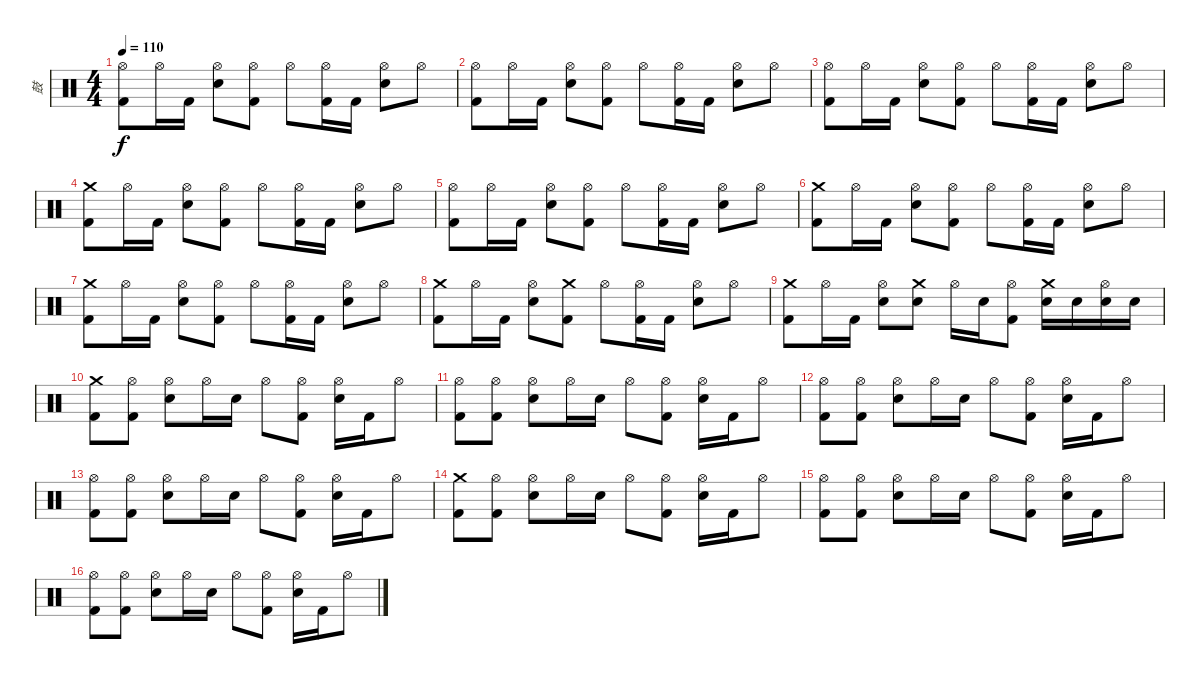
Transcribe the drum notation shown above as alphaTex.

\track ("鼓" "鼓") {instrument percussion}
\staff {score}
\articulation defaults
\ts (4 4)
\tempo 110
\clef neutral
\ks c
("Hi-Hat (open)" "Kick (hit) 2").8{dy f} "Hi-Hat (open)".16 "Kick (hit) 2".16 ("Hi-Hat (open)" "Electric Snare (hit)").8 ("Hi-Hat (open)" "Kick (hit) 2").8 "Hi-Hat (open)".8 ("Hi-Hat (open)" "Kick (hit) 2").16 "Kick (hit) 2".16 ("Hi-Hat (open)" "Electric Snare (hit)").8 "Hi-Hat (open)".8 |
("Hi-Hat (open)" "Kick (hit) 2").8 "Hi-Hat (open)".16 "Kick (hit) 2".16 ("Hi-Hat (open)" "Electric Snare (hit)").8 ("Hi-Hat (open)" "Kick (hit) 2").8 "Hi-Hat (open)".8 ("Hi-Hat (open)" "Kick (hit) 2").16 "Kick (hit) 2".16 ("Hi-Hat (open)" "Electric Snare (hit)").8 "Hi-Hat (open)".8 |
("Hi-Hat (open)" "Kick (hit) 2").8 "Hi-Hat (open)".16 "Kick (hit) 2".16 ("Hi-Hat (open)" "Electric Snare (hit)").8 ("Hi-Hat (open)" "Kick (hit) 2").8 "Hi-Hat (open)".8 ("Hi-Hat (open)" "Kick (hit) 2").16 "Kick (hit) 2".16 ("Hi-Hat (open)" "Electric Snare (hit)").8 "Hi-Hat (open)".8 |
("Crash medium (hit)" "Kick (hit) 2").8 "Hi-Hat (open)".16 "Kick (hit) 2".16 ("Hi-Hat (open)" "Electric Snare (hit)").8 ("Hi-Hat (open)" "Kick (hit) 2").8 "Hi-Hat (open)".8 ("Hi-Hat (open)" "Kick (hit) 2").16 "Kick (hit) 2".16 ("Hi-Hat (open)" "Electric Snare (hit)").8 "Hi-Hat (open)".8 |
("Hi-Hat (open)" "Kick (hit) 2").8 "Hi-Hat (open)".16 "Kick (hit) 2".16 ("Hi-Hat (open)" "Electric Snare (hit)").8 ("Hi-Hat (open)" "Kick (hit) 2").8 "Hi-Hat (open)".8 ("Hi-Hat (open)" "Kick (hit) 2").16 "Kick (hit) 2".16 ("Hi-Hat (open)" "Electric Snare (hit)").8 "Hi-Hat (open)".8 |
("Crash medium (hit)" "Kick (hit) 2").8 "Hi-Hat (open)".16 "Kick (hit) 2".16 ("Hi-Hat (open)" "Electric Snare (hit)").8 ("Hi-Hat (open)" "Kick (hit) 2").8 "Hi-Hat (open)".8 ("Hi-Hat (open)" "Kick (hit) 2").16 "Kick (hit) 2".16 ("Hi-Hat (open)" "Electric Snare (hit)").8 "Hi-Hat (open)".8 |
("Crash medium (hit)" "Kick (hit) 2").8 "Hi-Hat (open)".16 "Kick (hit) 2".16 ("Hi-Hat (open)" "Electric Snare (hit)").8 ("Hi-Hat (open)" "Kick (hit) 2").8 "Hi-Hat (open)".8 ("Hi-Hat (open)" "Kick (hit) 2").16 "Kick (hit) 2".16 ("Hi-Hat (open)" "Electric Snare (hit)").8 "Hi-Hat (open)".8 |
("Crash medium (hit)" "Kick (hit) 2").8 "Hi-Hat (open)".16 "Kick (hit) 2".16 ("Hi-Hat (open)" "Electric Snare (hit)").8 ("Crash medium (hit)" "Kick (hit) 2").8 "Hi-Hat (open)".8 ("Hi-Hat (open)" "Kick (hit) 2").16 "Kick (hit) 2".16 ("Hi-Hat (open)" "Electric Snare (hit)").8 "Hi-Hat (open)".8 |
("Crash medium (hit)" "Kick (hit) 2").8 "Hi-Hat (open)".16 "Kick (hit) 2".16 ("Hi-Hat (open)" "Electric Snare (hit)").8 ("Crash medium (hit)" "Electric Snare (hit)").8 "Hi-Hat (open)".16 "Electric Snare (hit)".16 ("Hi-Hat (open)" "Kick (hit) 2").8 ("Crash medium (hit)" "Electric Snare (hit)").16 "Electric Snare (hit)".16 ("Hi-Hat (open)" "Electric Snare (hit)").16 "Electric Snare (hit)".16 |
("Crash medium (hit)" "Kick (hit) 2").8 ("Hi-Hat (open)" "Kick (hit) 2").8 ("Hi-Hat (open)" "Electric Snare (hit)").8 "Hi-Hat (open)".16 "Electric Snare (hit)".16 "Hi-Hat (open)".8 ("Hi-Hat (open)" "Kick (hit) 2").8 ("Hi-Hat (open)" "Electric Snare (hit)").16 "Kick (hit) 2".16 "Hi-Hat (open)".8 |
("Hi-Hat (open)" "Kick (hit) 2").8 ("Hi-Hat (open)" "Kick (hit) 2").8 ("Hi-Hat (open)" "Electric Snare (hit)").8 "Hi-Hat (open)".16 "Electric Snare (hit)".16 "Hi-Hat (open)".8 ("Hi-Hat (open)" "Kick (hit) 2").8 ("Hi-Hat (open)" "Electric Snare (hit)").16 "Kick (hit) 2".16 "Hi-Hat (open)".8 |
("Hi-Hat (open)" "Kick (hit) 2").8 ("Hi-Hat (open)" "Kick (hit) 2").8 ("Hi-Hat (open)" "Electric Snare (hit)").8 "Hi-Hat (open)".16 "Electric Snare (hit)".16 "Hi-Hat (open)".8 ("Hi-Hat (open)" "Kick (hit) 2").8 ("Hi-Hat (open)" "Electric Snare (hit)").16 "Kick (hit) 2".16 "Hi-Hat (open)".8 |
("Hi-Hat (open)" "Kick (hit) 2").8 ("Hi-Hat (open)" "Kick (hit) 2").8 ("Hi-Hat (open)" "Electric Snare (hit)").8 "Hi-Hat (open)".16 "Electric Snare (hit)".16 "Hi-Hat (open)".8 ("Hi-Hat (open)" "Kick (hit) 2").8 ("Hi-Hat (open)" "Electric Snare (hit)").16 "Kick (hit) 2".16 "Hi-Hat (open)".8 |
("Crash medium (hit)" "Kick (hit) 2").8 ("Hi-Hat (open)" "Kick (hit) 2").8 ("Hi-Hat (open)" "Electric Snare (hit)").8 "Hi-Hat (open)".16 "Electric Snare (hit)".16 "Hi-Hat (open)".8 ("Hi-Hat (open)" "Kick (hit) 2").8 ("Hi-Hat (open)" "Electric Snare (hit)").16 "Kick (hit) 2".16 "Hi-Hat (open)".8 |
("Hi-Hat (open)" "Kick (hit) 2").8 ("Hi-Hat (open)" "Kick (hit) 2").8 ("Hi-Hat (open)" "Electric Snare (hit)").8 "Hi-Hat (open)".16 "Electric Snare (hit)".16 "Hi-Hat (open)".8 ("Hi-Hat (open)" "Kick (hit) 2").8 ("Hi-Hat (open)" "Electric Snare (hit)").16 "Kick (hit) 2".16 "Hi-Hat (open)".8 |
("Hi-Hat (open)" "Kick (hit) 2").8 ("Hi-Hat (open)" "Kick (hit) 2").8 ("Hi-Hat (open)" "Electric Snare (hit)").8 "Hi-Hat (open)".16 "Electric Snare (hit)".16 "Hi-Hat (open)".8 ("Hi-Hat (open)" "Kick (hit) 2").8 ("Hi-Hat (open)" "Electric Snare (hit)").16 "Kick (hit) 2".16 "Hi-Hat (open)".8
